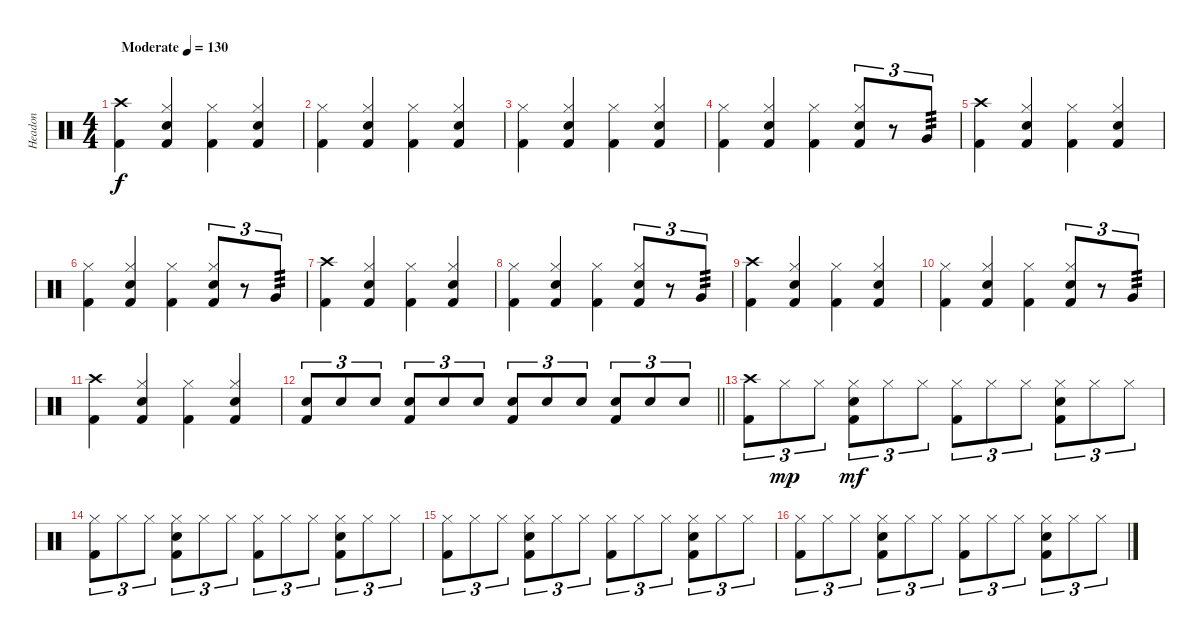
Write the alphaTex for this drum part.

\track ("Headon" "Headon") {instrument percussion}
\staff {score}
\articulation defaults
\ts (4 4)
\tempo (130 "Moderate")
\clef neutral
\ks c
("Crash high (hit)" "Kick (hit) 2").4{dy f} ("Hi-Hat (closed)" "Snare (hit) 2" "Kick (hit) 2").4 ("Hi-Hat (closed)" "Kick (hit) 2").4 ("Hi-Hat (closed)" "Snare (hit) 2" "Kick (hit) 2").4 |
("Hi-Hat (closed)" "Kick (hit) 2").4 ("Hi-Hat (closed)" "Snare (hit) 2" "Kick (hit) 2").4 ("Hi-Hat (closed)" "Kick (hit) 2").4 ("Hi-Hat (closed)" "Snare (hit) 2" "Kick (hit) 2").4 |
("Hi-Hat (closed)" "Kick (hit) 2").4 ("Hi-Hat (closed)" "Snare (hit) 2" "Kick (hit) 2").4 ("Hi-Hat (closed)" "Kick (hit) 2").4 ("Hi-Hat (closed)" "Snare (hit) 2" "Kick (hit) 2").4 |
("Hi-Hat (closed)" "Kick (hit) 2").4 ("Hi-Hat (closed)" "Snare (hit) 2" "Kick (hit) 2").4 ("Hi-Hat (closed)" "Kick (hit) 2").4 ("Hi-Hat (closed)" "Snare (hit) 2" "Kick (hit) 2").8{tu (3 2)} r.8{tu (3 2)} "Very Low Tom (hit)".8{tu (3 2) tp 3} |
("Crash high (hit)" "Kick (hit) 2").4 ("Hi-Hat (closed)" "Snare (hit) 2" "Kick (hit) 2").4 ("Hi-Hat (closed)" "Kick (hit) 2").4 ("Hi-Hat (closed)" "Snare (hit) 2" "Kick (hit) 2").4 |
("Hi-Hat (closed)" "Kick (hit) 2").4 ("Hi-Hat (closed)" "Snare (hit) 2" "Kick (hit) 2").4 ("Hi-Hat (closed)" "Kick (hit) 2").4 ("Hi-Hat (closed)" "Snare (hit) 2" "Kick (hit) 2").8{tu (3 2)} r.8{tu (3 2)} "Very Low Tom (hit)".8{tu (3 2) tp 3} |
("Crash high (hit)" "Kick (hit) 2").4 ("Hi-Hat (closed)" "Snare (hit) 2" "Kick (hit) 2").4 ("Hi-Hat (closed)" "Kick (hit) 2").4 ("Hi-Hat (closed)" "Snare (hit) 2" "Kick (hit) 2").4 |
("Hi-Hat (closed)" "Kick (hit) 2").4 ("Hi-Hat (closed)" "Snare (hit) 2" "Kick (hit) 2").4 ("Hi-Hat (closed)" "Kick (hit) 2").4 ("Hi-Hat (closed)" "Snare (hit) 2" "Kick (hit) 2").8{tu (3 2)} r.8{tu (3 2)} "Very Low Tom (hit)".8{tu (3 2) tp 3} |
("Crash high (hit)" "Kick (hit) 2").4 ("Hi-Hat (closed)" "Snare (hit) 2" "Kick (hit) 2").4 ("Hi-Hat (closed)" "Kick (hit) 2").4 ("Hi-Hat (closed)" "Snare (hit) 2" "Kick (hit) 2").4 |
("Hi-Hat (closed)" "Kick (hit) 2").4 ("Hi-Hat (closed)" "Snare (hit) 2" "Kick (hit) 2").4 ("Hi-Hat (closed)" "Kick (hit) 2").4 ("Hi-Hat (closed)" "Snare (hit) 2" "Kick (hit) 2").8{tu (3 2)} r.8{tu (3 2)} "Very Low Tom (hit)".8{tu (3 2) tp 3} |
("Crash high (hit)" "Kick (hit) 2").4 ("Hi-Hat (closed)" "Snare (hit) 2" "Kick (hit) 2").4 ("Hi-Hat (closed)" "Kick (hit) 2").4 ("Hi-Hat (closed)" "Snare (hit) 2" "Kick (hit) 2").4 |
\barLineRight lightlight
("Snare (hit) 2" "Kick (hit) 2").8{tu (3 2)} "Snare (hit) 2".8{tu (3 2)} "Snare (hit) 2".8{tu (3 2)} ("Snare (hit) 2" "Kick (hit) 2").8{tu (3 2)} "Snare (hit) 2".8{tu (3 2)} "Snare (hit) 2".8{tu (3 2)} ("Snare (hit) 2" "Kick (hit) 2").8{tu (3 2)} "Snare (hit) 2".8{tu (3 2)} "Snare (hit) 2".8{tu (3 2)} ("Snare (hit) 2" "Kick (hit) 2").8{tu (3 2)} "Snare (hit) 2".8{tu (3 2)} "Snare (hit) 2".8{tu (3 2)} |
("Crash high (hit)" "Kick (hit) 2").8{tu (3 2)} "Hi-Hat (closed)".8{tu (3 2) dy mp} "Hi-Hat (closed)".8{tu (3 2)} ("Hi-Hat (closed)" "Snare (hit) 2" "Kick (hit) 2").8{tu (3 2) dy mf} "Hi-Hat (closed)".8{tu (3 2)} "Hi-Hat (closed)".8{tu (3 2)} ("Hi-Hat (closed)" "Kick (hit) 2").8{tu (3 2)} "Hi-Hat (closed)".8{tu (3 2)} "Hi-Hat (closed)".8{tu (3 2)} ("Hi-Hat (closed)" "Snare (hit) 2" "Kick (hit) 2").8{tu (3 2)} "Hi-Hat (closed)".8{tu (3 2)} "Hi-Hat (closed)".8{tu (3 2)} |
("Hi-Hat (closed)" "Kick (hit) 2").8{tu (3 2)} "Hi-Hat (closed)".8{tu (3 2)} "Hi-Hat (closed)".8{tu (3 2)} ("Hi-Hat (closed)" "Snare (hit) 2" "Kick (hit) 2").8{tu (3 2)} "Hi-Hat (closed)".8{tu (3 2)} "Hi-Hat (closed)".8{tu (3 2)} ("Hi-Hat (closed)" "Kick (hit) 2").8{tu (3 2)} "Hi-Hat (closed)".8{tu (3 2)} "Hi-Hat (closed)".8{tu (3 2)} ("Hi-Hat (closed)" "Snare (hit) 2" "Kick (hit) 2").8{tu (3 2)} "Hi-Hat (closed)".8{tu (3 2)} "Hi-Hat (closed)".8{tu (3 2)} |
("Hi-Hat (closed)" "Kick (hit) 2").8{tu (3 2)} "Hi-Hat (closed)".8{tu (3 2)} "Hi-Hat (closed)".8{tu (3 2)} ("Hi-Hat (closed)" "Snare (hit) 2" "Kick (hit) 2").8{tu (3 2)} "Hi-Hat (closed)".8{tu (3 2)} "Hi-Hat (closed)".8{tu (3 2)} ("Hi-Hat (closed)" "Kick (hit) 2").8{tu (3 2)} "Hi-Hat (closed)".8{tu (3 2)} "Hi-Hat (closed)".8{tu (3 2)} ("Hi-Hat (closed)" "Snare (hit) 2" "Kick (hit) 2").8{tu (3 2)} "Hi-Hat (closed)".8{tu (3 2)} "Hi-Hat (closed)".8{tu (3 2)} |
("Hi-Hat (closed)" "Kick (hit) 2").8{tu (3 2)} "Hi-Hat (closed)".8{tu (3 2)} "Hi-Hat (closed)".8{tu (3 2)} ("Hi-Hat (closed)" "Snare (hit) 2" "Kick (hit) 2").8{tu (3 2)} "Hi-Hat (closed)".8{tu (3 2)} "Hi-Hat (closed)".8{tu (3 2)} ("Hi-Hat (closed)" "Kick (hit) 2").8{tu (3 2)} "Hi-Hat (closed)".8{tu (3 2)} "Hi-Hat (closed)".8{tu (3 2)} ("Hi-Hat (closed)" "Snare (hit) 2" "Kick (hit) 2").8{tu (3 2)} "Hi-Hat (closed)".8{tu (3 2)} "Hi-Hat (closed)".8{tu (3 2)}
